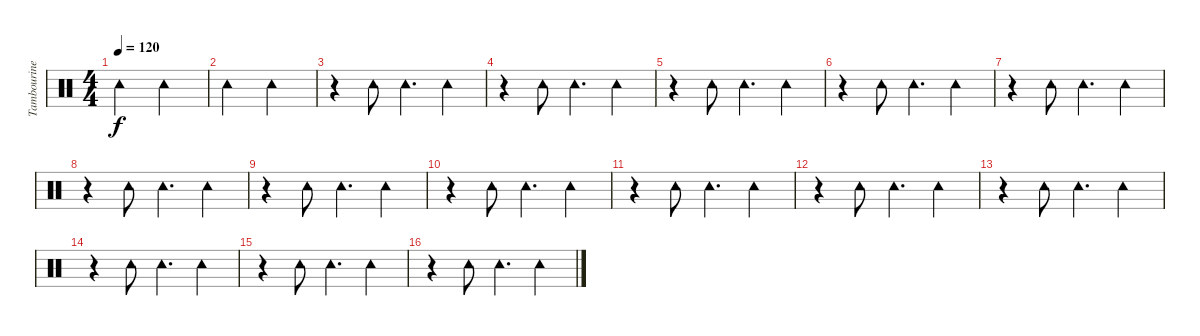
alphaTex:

\track ("Tambourine" "Tambourine") {instrument percussion}
\staff {score}
\articulation defaults
\ts (4 4)
\tempo 120
\clef neutral
\ks c "Tambourine (hit)".2{dy f} "Tambourine (hit)".2
|
"Tambourine (hit)".2 "Tambourine (hit)".2 |
r.4 "Tambourine (hit)".8 "Tambourine (hit)".4{d} "Tambourine (hit)".4 |
r.4 "Tambourine (hit)".8 "Tambourine (hit)".4{d} "Tambourine (hit)".4 |
r.4 "Tambourine (hit)".8 "Tambourine (hit)".4{d} "Tambourine (hit)".4 |
r.4 "Tambourine (hit)".8 "Tambourine (hit)".4{d} "Tambourine (hit)".4 |
r.4 "Tambourine (hit)".8 "Tambourine (hit)".4{d} "Tambourine (hit)".4 |
r.4 "Tambourine (hit)".8 "Tambourine (hit)".4{d} "Tambourine (hit)".4 |
r.4 "Tambourine (hit)".8 "Tambourine (hit)".4{d} "Tambourine (hit)".4 |
r.4 "Tambourine (hit)".8 "Tambourine (hit)".4{d} "Tambourine (hit)".4 |
r.4 "Tambourine (hit)".8 "Tambourine (hit)".4{d} "Tambourine (hit)".4 |
r.4 "Tambourine (hit)".8 "Tambourine (hit)".4{d} "Tambourine (hit)".4 |
r.4 "Tambourine (hit)".8 "Tambourine (hit)".4{d} "Tambourine (hit)".4 |
r.4 "Tambourine (hit)".8 "Tambourine (hit)".4{d} "Tambourine (hit)".4 |
r.4 "Tambourine (hit)".8 "Tambourine (hit)".4{d} "Tambourine (hit)".4 |
r.4 "Tambourine (hit)".8 "Tambourine (hit)".4{d} "Tambourine (hit)".4
